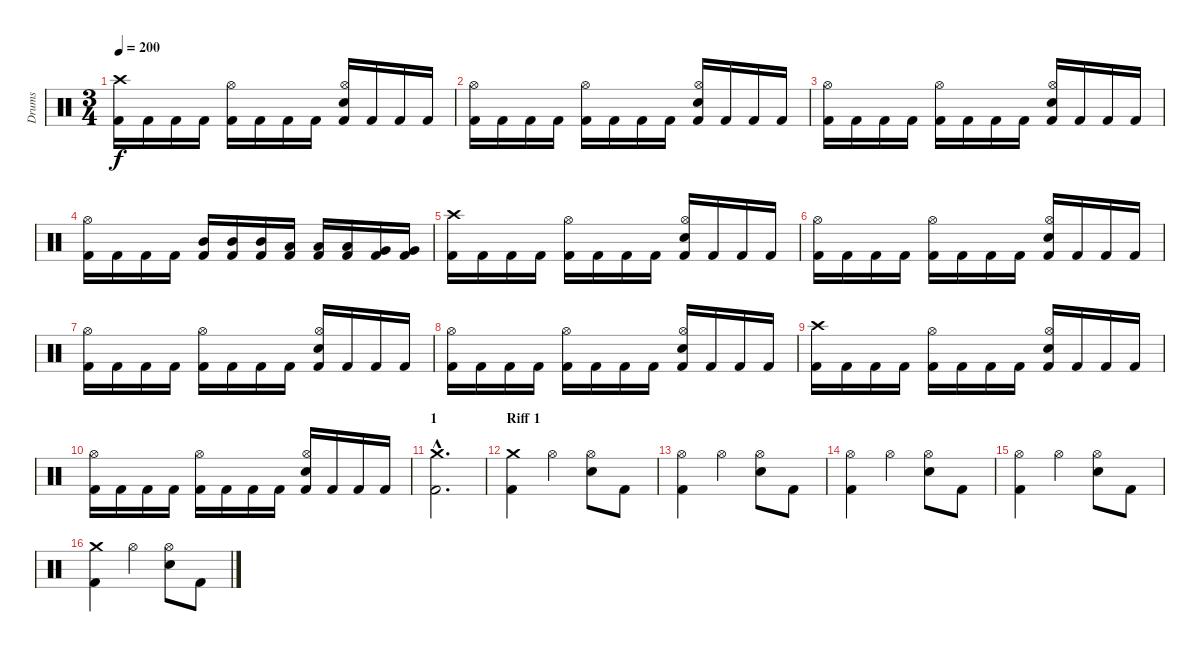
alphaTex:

\track ("Drums" "Drums") {instrument percussion}
\staff {score}
\articulation defaults
\ts (3 4)
\tempo 200
\clef neutral
\ks c
("Crash high (hit)" "Kick (hit) 2").16{dy f} "Kick (hit) 2".16 "Kick (hit) 2".16 "Kick (hit) 2".16 ("Hi-Hat (open)" "Kick (hit) 2").16 "Kick (hit) 2".16 "Kick (hit) 2".16 "Kick (hit) 2".16 ("Hi-Hat (open)" "Electric Snare (hit)" "Kick (hit) 2").16 "Kick (hit) 2".16 "Kick (hit) 2".16 "Kick (hit) 2".16 |
("Hi-Hat (open)" "Kick (hit) 2").16 "Kick (hit) 2".16 "Kick (hit) 2".16 "Kick (hit) 2".16 ("Hi-Hat (open)" "Kick (hit) 2").16 "Kick (hit) 2".16 "Kick (hit) 2".16 "Kick (hit) 2".16 ("Hi-Hat (open)" "Electric Snare (hit)" "Kick (hit) 2").16 "Kick (hit) 2".16 "Kick (hit) 2".16 "Kick (hit) 2".16 |
("Hi-Hat (open)" "Kick (hit) 2").16 "Kick (hit) 2".16 "Kick (hit) 2".16 "Kick (hit) 2".16 ("Hi-Hat (open)" "Kick (hit) 2").16 "Kick (hit) 2".16 "Kick (hit) 2".16 "Kick (hit) 2".16 ("Hi-Hat (open)" "Electric Snare (hit)" "Kick (hit) 2").16 "Kick (hit) 2".16 "Kick (hit) 2".16 "Kick (hit) 2".16 |
("Hi-Hat (open)" "Kick (hit) 2").16 "Kick (hit) 2".16 "Kick (hit) 2".16 "Kick (hit) 2".16 ("Mid Tom (hit)" "Kick (hit) 2").16 ("Mid Tom (hit)" "Kick (hit) 2").16 ("Mid Tom (hit)" "Kick (hit) 2").16 ("Low Tom (hit)" "Kick (hit) 2").16 ("Low Tom (hit)" "Kick (hit) 2").16 ("Low Tom (hit)" "Kick (hit) 2").16 ("Very Low Tom (hit)" "Kick (hit) 2").16 ("Very Low Tom (hit)" "Kick (hit) 2").16 |
("Crash high (hit)" "Kick (hit) 2").16 "Kick (hit) 2".16 "Kick (hit) 2".16 "Kick (hit) 2".16 ("Hi-Hat (open)" "Kick (hit) 2").16 "Kick (hit) 2".16 "Kick (hit) 2".16 "Kick (hit) 2".16 ("Hi-Hat (open)" "Electric Snare (hit)" "Kick (hit) 2").16 "Kick (hit) 2".16 "Kick (hit) 2".16 "Kick (hit) 2".16 |
("Hi-Hat (open)" "Kick (hit) 2").16 "Kick (hit) 2".16 "Kick (hit) 2".16 "Kick (hit) 2".16 ("Hi-Hat (open)" "Kick (hit) 2").16 "Kick (hit) 2".16 "Kick (hit) 2".16 "Kick (hit) 2".16 ("Hi-Hat (open)" "Electric Snare (hit)" "Kick (hit) 2").16 "Kick (hit) 2".16 "Kick (hit) 2".16 "Kick (hit) 2".16 |
("Hi-Hat (open)" "Kick (hit) 2").16 "Kick (hit) 2".16 "Kick (hit) 2".16 "Kick (hit) 2".16 ("Hi-Hat (open)" "Kick (hit) 2").16 "Kick (hit) 2".16 "Kick (hit) 2".16 "Kick (hit) 2".16 ("Hi-Hat (open)" "Electric Snare (hit)" "Kick (hit) 2").16 "Kick (hit) 2".16 "Kick (hit) 2".16 "Kick (hit) 2".16 |
("Hi-Hat (open)" "Kick (hit) 2").16 "Kick (hit) 2".16 "Kick (hit) 2".16 "Kick (hit) 2".16 ("Hi-Hat (open)" "Kick (hit) 2").16 "Kick (hit) 2".16 "Kick (hit) 2".16 "Kick (hit) 2".16 ("Hi-Hat (open)" "Electric Snare (hit)" "Kick (hit) 2").16 "Kick (hit) 2".16 "Kick (hit) 2".16 "Kick (hit) 2".16 |
("Crash high (hit)" "Kick (hit) 2").16 "Kick (hit) 2".16 "Kick (hit) 2".16 "Kick (hit) 2".16 ("Hi-Hat (open)" "Kick (hit) 2").16 "Kick (hit) 2".16 "Kick (hit) 2".16 "Kick (hit) 2".16 ("Hi-Hat (open)" "Electric Snare (hit)" "Kick (hit) 2").16 "Kick (hit) 2".16 "Kick (hit) 2".16 "Kick (hit) 2".16 |
("Hi-Hat (open)" "Kick (hit) 2").16 "Kick (hit) 2".16 "Kick (hit) 2".16 "Kick (hit) 2".16 ("Hi-Hat (open)" "Kick (hit) 2").16 "Kick (hit) 2".16 "Kick (hit) 2".16 "Kick (hit) 2".16 ("Hi-Hat (open)" "Electric Snare (hit)" "Kick (hit) 2").16 "Kick (hit) 2".16 "Kick (hit) 2".16 "Kick (hit) 2".16 |
\section ("" "1")
("Crash medium (hit)"{hac} "Kick (hit) 2"{hac}).2{d} |
\section ("" "Riff 1")
("Crash medium (hit)" "Kick (hit) 2").4 "Hi-Hat (open)".4 ("Hi-Hat (open)" "Electric Snare (hit)").8 "Kick (hit) 2".8 |
("Hi-Hat (open)" "Kick (hit) 2").4 "Hi-Hat (open)".4 ("Hi-Hat (open)" "Electric Snare (hit)").8 "Kick (hit) 2".8 |
("Hi-Hat (open)" "Kick (hit) 2").4 "Hi-Hat (open)".4 ("Hi-Hat (open)" "Electric Snare (hit)").8 "Kick (hit) 2".8 |
("Hi-Hat (open)" "Kick (hit) 2").4 "Hi-Hat (open)".4 ("Hi-Hat (open)" "Electric Snare (hit)").8 "Kick (hit) 2".8 |
("Crash medium (hit)" "Kick (hit) 2").4 "Hi-Hat (open)".4 ("Hi-Hat (open)" "Electric Snare (hit)").8 "Kick (hit) 2".8
